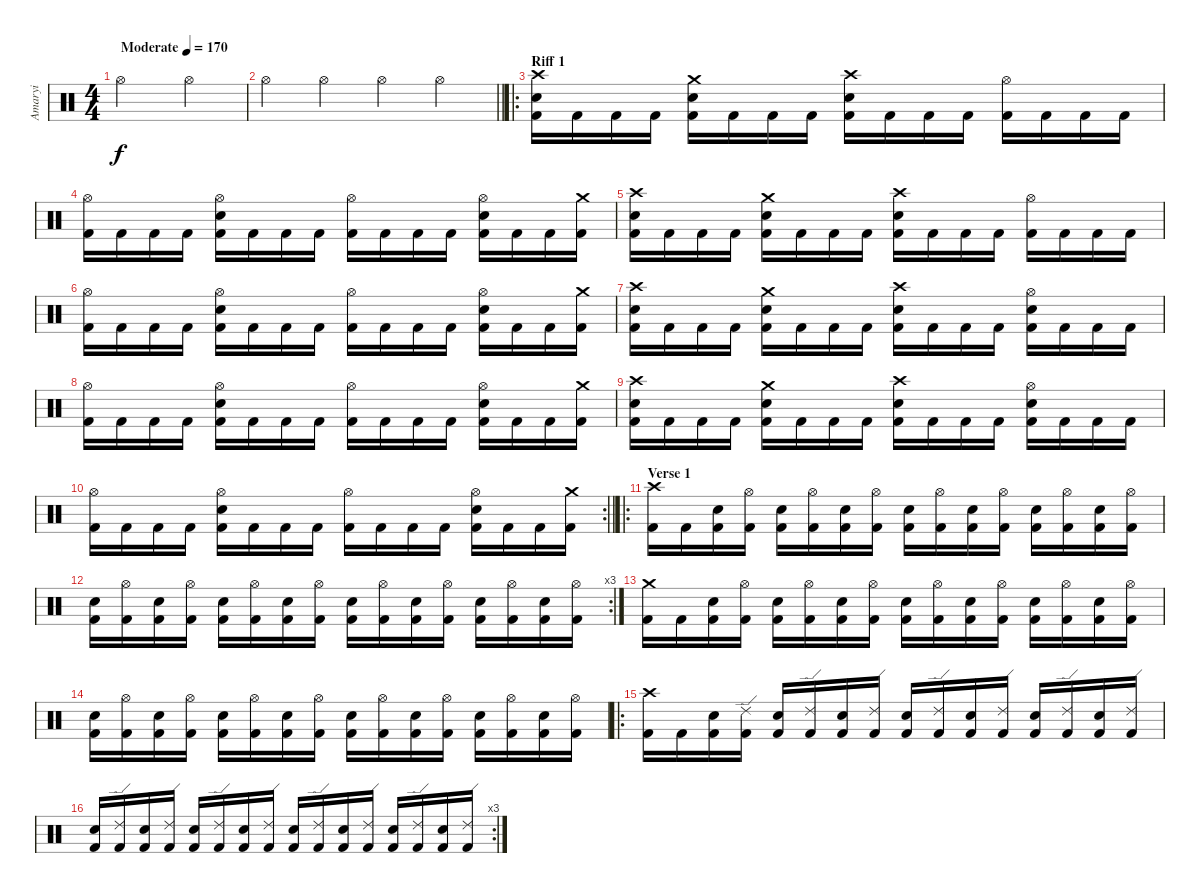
\track ("Amaryi" "Amaryi") {instrument percussion}
\staff {score}
\articulation defaults
\ts (4 4)
\tempo (170 "Moderate")
\clef neutral
\ks c "Hi-Hat (open)".2{dy f} "Hi-Hat (open)".4
|
\barLineRight lightlight "Hi-Hat (open)".4 "Hi-Hat (open)".4 "Hi-Hat (open)".4 "Hi-Hat (open)".4
|
\ro
\section ("" "Riff 1")
("Crash high (hit)" "Electric Snare (hit)" "Kick (hit) 2").16 "Kick (hit) 2".16 "Kick (hit) 2".16 "Kick (hit) 2".16 ("Crash medium (hit)" "Electric Snare (hit)" "Kick (hit) 2").16 "Kick (hit) 2".16 "Kick (hit) 2".16 "Kick (hit) 2".16 ("Crash high (hit)" "Electric Snare (hit)" "Kick (hit) 2").16 "Kick (hit) 2".16 "Kick (hit) 2".16 "Kick (hit) 2".16 ("Hi-Hat (open)" "Kick (hit) 2").16 "Kick (hit) 2".16 "Kick (hit) 2".16 "Kick (hit) 2".16 |
("Hi-Hat (open)" "Kick (hit) 2").16 "Kick (hit) 2".16 "Kick (hit) 2".16 "Kick (hit) 2".16 ("Hi-Hat (open)" "Electric Snare (hit)" "Kick (hit) 2").16 "Kick (hit) 2".16 "Kick (hit) 2".16 "Kick (hit) 2".16 ("Hi-Hat (open)" "Kick (hit) 2").16 "Kick (hit) 2".16 "Kick (hit) 2".16 "Kick (hit) 2".16 ("Hi-Hat (open)" "Electric Snare (hit)" "Kick (hit) 2").16 "Kick (hit) 2".16 "Kick (hit) 2".16 ("Crash medium (hit)" "Kick (hit) 2").16 |
("Crash high (hit)" "Electric Snare (hit)" "Kick (hit) 2").16 "Kick (hit) 2".16 "Kick (hit) 2".16 "Kick (hit) 2".16 ("Crash medium (hit)" "Electric Snare (hit)" "Kick (hit) 2").16 "Kick (hit) 2".16 "Kick (hit) 2".16 "Kick (hit) 2".16 ("Crash high (hit)" "Electric Snare (hit)" "Kick (hit) 2").16 "Kick (hit) 2".16 "Kick (hit) 2".16 "Kick (hit) 2".16 ("Hi-Hat (open)" "Kick (hit) 2").16 "Kick (hit) 2".16 "Kick (hit) 2".16 "Kick (hit) 2".16 |
("Hi-Hat (open)" "Kick (hit) 2").16 "Kick (hit) 2".16 "Kick (hit) 2".16 "Kick (hit) 2".16 ("Hi-Hat (open)" "Electric Snare (hit)" "Kick (hit) 2").16 "Kick (hit) 2".16 "Kick (hit) 2".16 "Kick (hit) 2".16 ("Hi-Hat (open)" "Kick (hit) 2").16 "Kick (hit) 2".16 "Kick (hit) 2".16 "Kick (hit) 2".16 ("Hi-Hat (open)" "Electric Snare (hit)" "Kick (hit) 2").16 "Kick (hit) 2".16 "Kick (hit) 2".16 ("Crash medium (hit)" "Kick (hit) 2").16 |
("Crash high (hit)" "Electric Snare (hit)" "Kick (hit) 2").16 "Kick (hit) 2".16 "Kick (hit) 2".16 "Kick (hit) 2".16 ("Crash medium (hit)" "Electric Snare (hit)" "Kick (hit) 2").16 "Kick (hit) 2".16 "Kick (hit) 2".16 "Kick (hit) 2".16 ("Crash high (hit)" "Electric Snare (hit)" "Kick (hit) 2").16 "Kick (hit) 2".16 "Kick (hit) 2".16 "Kick (hit) 2".16 ("Hi-Hat (open)" "Electric Snare (hit)" "Kick (hit) 2").16 "Kick (hit) 2".16 "Kick (hit) 2".16 "Kick (hit) 2".16 |
("Hi-Hat (open)" "Kick (hit) 2").16 "Kick (hit) 2".16 "Kick (hit) 2".16 "Kick (hit) 2".16 ("Hi-Hat (open)" "Electric Snare (hit)" "Kick (hit) 2").16 "Kick (hit) 2".16 "Kick (hit) 2".16 "Kick (hit) 2".16 ("Hi-Hat (open)" "Kick (hit) 2").16 "Kick (hit) 2".16 "Kick (hit) 2".16 "Kick (hit) 2".16 ("Hi-Hat (open)" "Electric Snare (hit)" "Kick (hit) 2").16 "Kick (hit) 2".16 "Kick (hit) 2".16 ("Crash medium (hit)" "Kick (hit) 2").16 |
("Crash high (hit)" "Electric Snare (hit)" "Kick (hit) 2").16 "Kick (hit) 2".16 "Kick (hit) 2".16 "Kick (hit) 2".16 ("Crash medium (hit)" "Electric Snare (hit)" "Kick (hit) 2").16 "Kick (hit) 2".16 "Kick (hit) 2".16 "Kick (hit) 2".16 ("Crash high (hit)" "Electric Snare (hit)" "Kick (hit) 2").16 "Kick (hit) 2".16 "Kick (hit) 2".16 "Kick (hit) 2".16 ("Hi-Hat (open)" "Electric Snare (hit)" "Kick (hit) 2").16 "Kick (hit) 2".16 "Kick (hit) 2".16 "Kick (hit) 2".16 |
\rc 2
\barLineRight lightlight
("Hi-Hat (open)" "Kick (hit) 2").16 "Kick (hit) 2".16 "Kick (hit) 2".16 "Kick (hit) 2".16 ("Hi-Hat (open)" "Electric Snare (hit)" "Kick (hit) 2").16 "Kick (hit) 2".16 "Kick (hit) 2".16 "Kick (hit) 2".16 ("Hi-Hat (open)" "Kick (hit) 2").16 "Kick (hit) 2".16 "Kick (hit) 2".16 "Kick (hit) 2".16 ("Hi-Hat (open)" "Electric Snare (hit)" "Kick (hit) 2").16 "Kick (hit) 2".16 "Kick (hit) 2".16 ("Crash medium (hit)" "Kick (hit) 2").16 |
\ro
\section ("" "Verse 1")
("Crash high (hit)" "Kick (hit) 2").16 "Kick (hit) 2".16 ("Electric Snare (hit)" "Kick (hit) 2").16 ("Hi-Hat (open)" "Kick (hit) 2").16 ("Electric Snare (hit)" "Kick (hit) 2").16 ("Hi-Hat (open)" "Kick (hit) 2").16 ("Electric Snare (hit)" "Kick (hit) 2").16 ("Hi-Hat (open)" "Kick (hit) 2").16 ("Electric Snare (hit)" "Kick (hit) 2").16 ("Hi-Hat (open)" "Kick (hit) 2").16 ("Electric Snare (hit)" "Kick (hit) 2").16 ("Hi-Hat (open)" "Kick (hit) 2").16 ("Electric Snare (hit)" "Kick (hit) 2").16 ("Hi-Hat (open)" "Kick (hit) 2").16 ("Electric Snare (hit)" "Kick (hit) 2").16 ("Hi-Hat (open)" "Kick (hit) 2").16 |
\rc 3
("Electric Snare (hit)" "Kick (hit) 2").16 ("Hi-Hat (open)" "Kick (hit) 2").16 ("Electric Snare (hit)" "Kick (hit) 2").16 ("Hi-Hat (open)" "Kick (hit) 2").16 ("Electric Snare (hit)" "Kick (hit) 2").16 ("Hi-Hat (open)" "Kick (hit) 2").16 ("Electric Snare (hit)" "Kick (hit) 2").16 ("Hi-Hat (open)" "Kick (hit) 2").16 ("Electric Snare (hit)" "Kick (hit) 2").16 ("Hi-Hat (open)" "Kick (hit) 2").16 ("Electric Snare (hit)" "Kick (hit) 2").16 ("Hi-Hat (open)" "Kick (hit) 2").16 ("Electric Snare (hit)" "Kick (hit) 2").16 ("Hi-Hat (open)" "Kick (hit) 2").16 ("Electric Snare (hit)" "Kick (hit) 2").16 ("Hi-Hat (open)" "Kick (hit) 2").16 |
("Crash medium (hit)" "Kick (hit) 2").16 "Kick (hit) 2".16 ("Electric Snare (hit)" "Kick (hit) 2").16 ("Hi-Hat (open)" "Kick (hit) 2").16 ("Electric Snare (hit)" "Kick (hit) 2").16 ("Hi-Hat (open)" "Kick (hit) 2").16 ("Electric Snare (hit)" "Kick (hit) 2").16 ("Hi-Hat (open)" "Kick (hit) 2").16 ("Electric Snare (hit)" "Kick (hit) 2").16 ("Hi-Hat (open)" "Kick (hit) 2").16 ("Electric Snare (hit)" "Kick (hit) 2").16 ("Hi-Hat (open)" "Kick (hit) 2").16 ("Electric Snare (hit)" "Kick (hit) 2").16 ("Hi-Hat (open)" "Kick (hit) 2").16 ("Electric Snare (hit)" "Kick (hit) 2").16 ("Hi-Hat (open)" "Kick (hit) 2").16 |
("Electric Snare (hit)" "Kick (hit) 2").16 ("Hi-Hat (open)" "Kick (hit) 2").16 ("Electric Snare (hit)" "Kick (hit) 2").16 ("Hi-Hat (open)" "Kick (hit) 2").16 ("Electric Snare (hit)" "Kick (hit) 2").16 ("Hi-Hat (open)" "Kick (hit) 2").16 ("Electric Snare (hit)" "Kick (hit) 2").16 ("Hi-Hat (open)" "Kick (hit) 2").16 ("Electric Snare (hit)" "Kick (hit) 2").16 ("Hi-Hat (open)" "Kick (hit) 2").16 ("Electric Snare (hit)" "Kick (hit) 2").16 ("Hi-Hat (open)" "Kick (hit) 2").16 ("Electric Snare (hit)" "Kick (hit) 2").16 ("Hi-Hat (open)" "Kick (hit) 2").16 ("Electric Snare (hit)" "Kick (hit) 2").16 ("Hi-Hat (open)" "Kick (hit) 2").16 |
\ro
("Crash high (hit)" "Kick (hit) 2").16 "Kick (hit) 2".16 ("Electric Snare (hit)" "Kick (hit) 2").16 ("Ride (edge) 2" "Kick (hit) 2").16 ("Electric Snare (hit)" "Kick (hit) 2").16 ("Ride (edge) 2" "Kick (hit) 2").16 ("Electric Snare (hit)" "Kick (hit) 2").16 ("Ride (edge) 2" "Kick (hit) 2").16 ("Electric Snare (hit)" "Kick (hit) 2").16 ("Ride (edge) 2" "Kick (hit) 2").16 ("Electric Snare (hit)" "Kick (hit) 2").16 ("Ride (edge) 2" "Kick (hit) 2").16 ("Electric Snare (hit)" "Kick (hit) 2").16 ("Ride (edge) 2" "Kick (hit) 2").16 ("Electric Snare (hit)" "Kick (hit) 2").16 ("Ride (edge) 2" "Kick (hit) 2").16 |
\rc 3
("Electric Snare (hit)" "Kick (hit) 2").16 ("Ride (edge) 2" "Kick (hit) 2").16 ("Electric Snare (hit)" "Kick (hit) 2").16 ("Ride (edge) 2" "Kick (hit) 2").16 ("Electric Snare (hit)" "Kick (hit) 2").16 ("Ride (edge) 2" "Kick (hit) 2").16 ("Electric Snare (hit)" "Kick (hit) 2").16 ("Ride (edge) 2" "Kick (hit) 2").16 ("Electric Snare (hit)" "Kick (hit) 2").16 ("Ride (edge) 2" "Kick (hit) 2").16 ("Electric Snare (hit)" "Kick (hit) 2").16 ("Ride (edge) 2" "Kick (hit) 2").16 ("Electric Snare (hit)" "Kick (hit) 2").16 ("Ride (edge) 2" "Kick (hit) 2").16 ("Electric Snare (hit)" "Kick (hit) 2").16 ("Ride (edge) 2" "Kick (hit) 2").16
